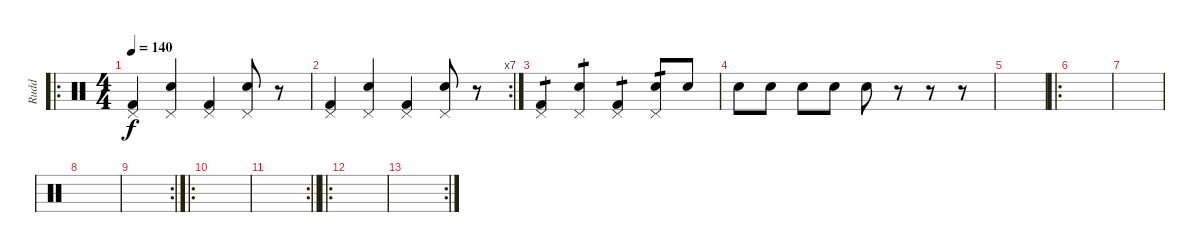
\track ("Rudd" "Rudd") {instrument percussion}
\staff {score}
\articulation defaults
\ro
\ts (4 4)
\tempo 140
\clef neutral
\ks c
("Kick (hit) 2" "Pedal Hi-Hat (hit)").4{dy f} ("Snare (hit) 2" "Pedal Hi-Hat (hit)").4 ("Kick (hit) 2" "Pedal Hi-Hat (hit)").4 ("Snare (hit) 2" "Pedal Hi-Hat (hit)").8 r.8 |
\rc 7
("Kick (hit) 2" "Pedal Hi-Hat (hit)").4 ("Snare (hit) 2" "Pedal Hi-Hat (hit)").4 ("Kick (hit) 2" "Pedal Hi-Hat (hit)").4 ("Snare (hit) 2" "Pedal Hi-Hat (hit)").8 r.8 |
("Kick (hit) 2" "Pedal Hi-Hat (hit)").4{tp 1} ("Snare (hit) 2" "Pedal Hi-Hat (hit)").4{tp 1} ("Kick (hit) 2" "Pedal Hi-Hat (hit)").4{tp 1} ("Snare (hit) 2" "Pedal Hi-Hat (hit)").8{tp 1} "Snare (hit) 2".8 |
"Snare (hit) 2".8 "Snare (hit) 2".8 "Snare (hit) 2".8 "Snare (hit) 2".8 "Snare (hit) 2".8 r.8 r.8 r.8 |
|
\ro
|
|
|
\rc 2
|
\ro
|
\rc 2
\barLineRight lightlight
|
\ro
|
\rc 2
